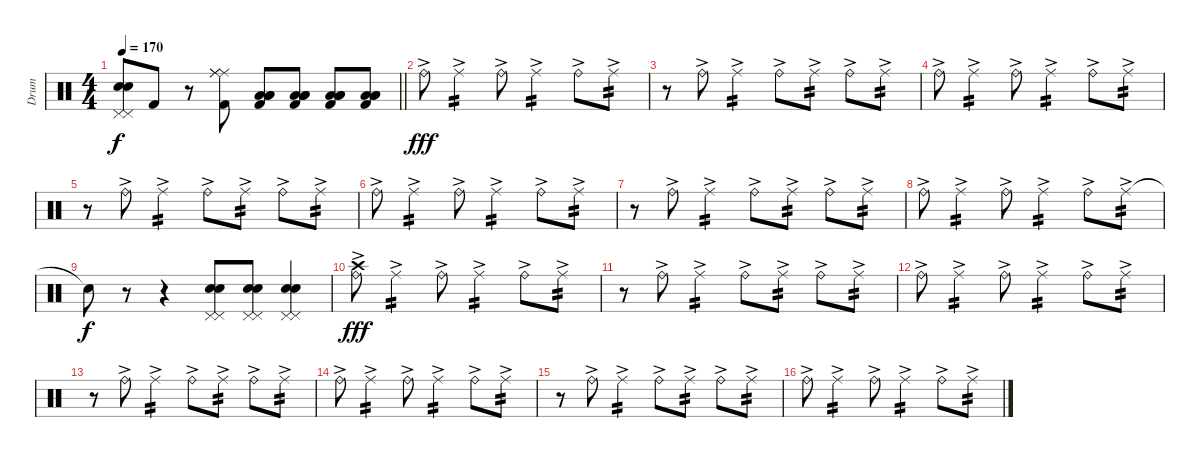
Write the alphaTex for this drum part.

\track ("Drum" "Drum") {instrument percussion}
\staff {score}
\articulation defaults
\ts (4 4)
\tempo 170
\clef neutral
\barLineRight lightlight
\ks c
("Electric Snare (hit)" "Electric Snare (hit)" "Pedal Hi-Hat (hit)" "Pedal Hi-Hat (hit)").8{dy f} "Kick (hit) 2".8 r.8 ("Kick (hit) 2" "Ride (middle)" "Ride (middle)" "Ride (middle)").8 ("Kick (hit) 2" "Low Tom (hit)" "Low Floor Tom (hit)" "Low Floor Tom (hit)").8 ("Kick (hit) 2" "Low Tom (hit)" "Low Floor Tom (hit)" "Low Floor Tom (hit)").8 ("Kick (hit) 2" "Low Tom (hit)" "Low Floor Tom (hit)" "Low Floor Tom (hit)").8 ("Kick (hit) 2" "Low Tom (hit)" "Low Floor Tom (hit)" "Low Floor Tom (hit)").8 |
"Ride (bell)"{ac}.8{dy fff} "Ride (middle)"{ac}.4{tp 2} "Ride (bell)"{ac}.8 "Ride (middle)"{ac}.4{tp 2} "Ride (bell)"{ac}.8 "Ride (middle)"{ac}.8{tp 2} |
r.8 "Ride (bell)"{ac}.8 "Ride (middle)"{ac}.4{tp 2} "Ride (bell)"{ac}.8 "Ride (middle)"{ac}.8{tp 2} "Ride (bell)"{ac}.8 "Ride (middle)"{ac}.8{tp 2} |
"Ride (bell)"{ac}.8 "Ride (middle)"{ac}.4{tp 2} "Ride (bell)"{ac}.8 "Ride (middle)"{ac}.4{tp 2} "Ride (bell)"{ac}.8 "Ride (middle)"{ac}.8{tp 2} |
r.8 "Ride (bell)"{ac}.8 "Ride (middle)"{ac}.4{tp 2} "Ride (bell)"{ac}.8 "Ride (middle)"{ac}.8{tp 2} "Ride (bell)"{ac}.8 "Ride (middle)"{ac}.8{tp 2} |
"Ride (bell)"{ac}.8 "Ride (middle)"{ac}.4{tp 2} "Ride (bell)"{ac}.8 "Ride (middle)"{ac}.4{tp 2} "Ride (bell)"{ac}.8 "Ride (middle)"{ac}.8{tp 2} |
r.8 "Ride (bell)"{ac}.8 "Ride (middle)"{ac}.4{tp 2} "Ride (bell)"{ac}.8 "Ride (middle)"{ac}.8{tp 2} "Ride (bell)"{ac}.8 "Ride (middle)"{ac}.8{tp 2} |
"Ride (bell)"{ac}.8 "Ride (middle)"{ac}.4{tp 2} "Ride (bell)"{ac}.8 "Ride (middle)"{ac}.4{tp 2} "Ride (bell)"{ac}.8 "Ride (middle)"{ac}.8{tp 2} |
"Snare (hit)"{t}.8{dy f} r.8 r.4 ("Electric Snare (hit)" "Electric Snare (hit)" "Pedal Hi-Hat (hit)" "Pedal Hi-Hat (hit)").8 ("Electric Snare (hit)" "Electric Snare (hit)" "Pedal Hi-Hat (hit)" "Pedal Hi-Hat (hit)").8 ("Electric Snare (hit)" "Electric Snare (hit)" "Pedal Hi-Hat (hit)" "Pedal Hi-Hat (hit)").4 |
("Crash high (hit)" "Ride (bell)"{ac}).8{dy fff} "Ride (middle)"{ac}.4{tp 2} "Ride (bell)"{ac}.8 "Ride (middle)"{ac}.4{tp 2} "Ride (bell)"{ac}.8 "Ride (middle)"{ac}.8{tp 2} |
r.8 "Ride (bell)"{ac}.8 "Ride (middle)"{ac}.4{tp 2} "Ride (bell)"{ac}.8 "Ride (middle)"{ac}.8{tp 2} "Ride (bell)"{ac}.8 "Ride (middle)"{ac}.8{tp 2} |
"Ride (bell)"{ac}.8 "Ride (middle)"{ac}.4{tp 2} "Ride (bell)"{ac}.8 "Ride (middle)"{ac}.4{tp 2} "Ride (bell)"{ac}.8 "Ride (middle)"{ac}.8{tp 2} |
r.8 "Ride (bell)"{ac}.8 "Ride (middle)"{ac}.4{tp 2} "Ride (bell)"{ac}.8 "Ride (middle)"{ac}.8{tp 2} "Ride (bell)"{ac}.8 "Ride (middle)"{ac}.8{tp 2} |
"Ride (bell)"{ac}.8 "Ride (middle)"{ac}.4{tp 2} "Ride (bell)"{ac}.8 "Ride (middle)"{ac}.4{tp 2} "Ride (bell)"{ac}.8 "Ride (middle)"{ac}.8{tp 2} |
r.8 "Ride (bell)"{ac}.8 "Ride (middle)"{ac}.4{tp 2} "Ride (bell)"{ac}.8 "Ride (middle)"{ac}.8{tp 2} "Ride (bell)"{ac}.8 "Ride (middle)"{ac}.8{tp 2} |
"Ride (bell)"{ac}.8 "Ride (middle)"{ac}.4{tp 2} "Ride (bell)"{ac}.8 "Ride (middle)"{ac}.4{tp 2} "Ride (bell)"{ac}.8 "Ride (middle)"{ac}.8{tp 2}
